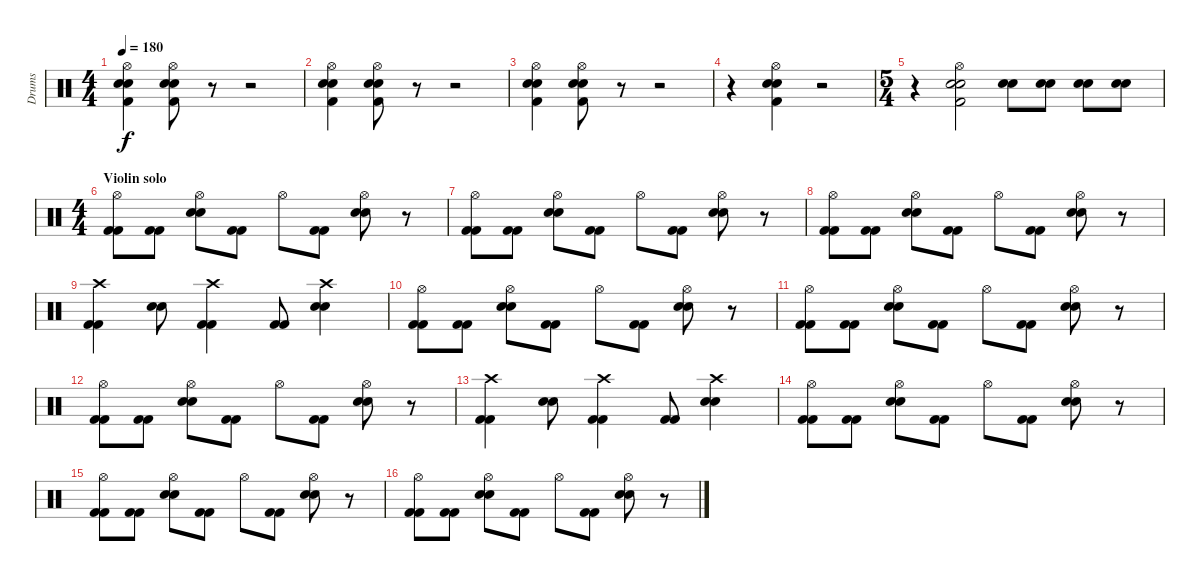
\track ("Drums" "Drums") {instrument percussion}
\staff {score}
\articulation defaults
\ts (4 4)
\tempo 180
\clef neutral
\ks c
("Hi-Hat (open)" "Snare (hit) 2" "Snare (hit) 2" "Kick (hit) 2").4{dy f} ("Hi-Hat (open)" "Snare (hit) 2" "Snare (hit) 2" "Kick (hit) 2").8 r.8 r.2 |
("Hi-Hat (open)" "Snare (hit) 2" "Snare (hit) 2" "Kick (hit) 2").4 ("Hi-Hat (open)" "Snare (hit) 2" "Snare (hit) 2" "Kick (hit) 2").8 r.8 r.2 |
("Hi-Hat (open)" "Snare (hit) 2" "Snare (hit) 2" "Kick (hit) 2").4 ("Hi-Hat (open)" "Snare (hit) 2" "Snare (hit) 2" "Kick (hit) 2").8 r.8 r.2 |
r.4 ("Hi-Hat (open)" "Snare (hit) 2" "Snare (hit) 2" "Kick (hit) 2").4 r.2 |
\ts (5 4)
r.4 ("Hi-Hat (open)" "Snare (hit) 2" "Snare (hit) 2" "Kick (hit) 2").2 ("Snare (hit) 2" "Snare (hit) 2").8 ("Snare (hit) 2" "Snare (hit) 2").8 ("Snare (hit) 2" "Snare (hit) 2").8 ("Snare (hit) 2" "Snare (hit) 2").8 |
\ts (4 4)
\section ("" "Violin solo")
("Hi-Hat (open)" "Kick (hit) 2" "Kick (hit) 2").8 ("Kick (hit) 2" "Kick (hit) 2").8 ("Hi-Hat (open)" "Snare (hit) 2" "Snare (hit) 2").8 ("Kick (hit) 2" "Kick (hit) 2").8 "Hi-Hat (open)".8 ("Kick (hit) 2" "Kick (hit) 2").8 ("Hi-Hat (open)" "Snare (hit) 2" "Snare (hit) 2").8 r.8 |
("Hi-Hat (open)" "Kick (hit) 2" "Kick (hit) 2").8 ("Kick (hit) 2" "Kick (hit) 2").8 ("Hi-Hat (open)" "Snare (hit) 2" "Snare (hit) 2").8 ("Kick (hit) 2" "Kick (hit) 2").8 "Hi-Hat (open)".8 ("Kick (hit) 2" "Kick (hit) 2").8 ("Hi-Hat (open)" "Snare (hit) 2" "Snare (hit) 2").8 r.8 |
("Hi-Hat (open)" "Kick (hit) 2" "Kick (hit) 2").8 ("Kick (hit) 2" "Kick (hit) 2").8 ("Hi-Hat (open)" "Snare (hit) 2" "Snare (hit) 2").8 ("Kick (hit) 2" "Kick (hit) 2").8 "Hi-Hat (open)".8 ("Kick (hit) 2" "Kick (hit) 2").8 ("Hi-Hat (open)" "Snare (hit) 2" "Snare (hit) 2").8 r.8 |
("Crash high (hit)" "Kick (hit) 2" "Kick (hit) 2").4 ("Snare (hit) 2" "Snare (hit) 2").8 ("Crash high (hit)" "Kick (hit) 2" "Kick (hit) 2").4 ("Kick (hit) 2" "Kick (hit) 2").8 ("Crash high (hit)" "Snare (hit) 2" "Snare (hit) 2").4 |
("Hi-Hat (open)" "Kick (hit) 2" "Kick (hit) 2").8 ("Kick (hit) 2" "Kick (hit) 2").8 ("Hi-Hat (open)" "Snare (hit) 2" "Snare (hit) 2").8 ("Kick (hit) 2" "Kick (hit) 2").8 "Hi-Hat (open)".8 ("Kick (hit) 2" "Kick (hit) 2").8 ("Hi-Hat (open)" "Snare (hit) 2" "Snare (hit) 2").8 r.8 |
("Hi-Hat (open)" "Kick (hit) 2" "Kick (hit) 2").8 ("Kick (hit) 2" "Kick (hit) 2").8 ("Hi-Hat (open)" "Snare (hit) 2" "Snare (hit) 2").8 ("Kick (hit) 2" "Kick (hit) 2").8 "Hi-Hat (open)".8 ("Kick (hit) 2" "Kick (hit) 2").8 ("Hi-Hat (open)" "Snare (hit) 2" "Snare (hit) 2").8 r.8 |
("Hi-Hat (open)" "Kick (hit) 2" "Kick (hit) 2").8 ("Kick (hit) 2" "Kick (hit) 2").8 ("Hi-Hat (open)" "Snare (hit) 2" "Snare (hit) 2").8 ("Kick (hit) 2" "Kick (hit) 2").8 "Hi-Hat (open)".8 ("Kick (hit) 2" "Kick (hit) 2").8 ("Hi-Hat (open)" "Snare (hit) 2" "Snare (hit) 2").8 r.8 |
("Crash high (hit)" "Kick (hit) 2" "Kick (hit) 2").4 ("Snare (hit) 2" "Snare (hit) 2").8 ("Crash high (hit)" "Kick (hit) 2" "Kick (hit) 2").4 ("Kick (hit) 2" "Kick (hit) 2").8 ("Crash high (hit)" "Snare (hit) 2" "Snare (hit) 2").4 |
("Hi-Hat (open)" "Kick (hit) 2" "Kick (hit) 2").8 ("Kick (hit) 2" "Kick (hit) 2").8 ("Hi-Hat (open)" "Snare (hit) 2" "Snare (hit) 2").8 ("Kick (hit) 2" "Kick (hit) 2").8 "Hi-Hat (open)".8 ("Kick (hit) 2" "Kick (hit) 2").8 ("Hi-Hat (open)" "Snare (hit) 2" "Snare (hit) 2").8 r.8 |
("Hi-Hat (open)" "Kick (hit) 2" "Kick (hit) 2").8 ("Kick (hit) 2" "Kick (hit) 2").8 ("Hi-Hat (open)" "Snare (hit) 2" "Snare (hit) 2").8 ("Kick (hit) 2" "Kick (hit) 2").8 "Hi-Hat (open)".8 ("Kick (hit) 2" "Kick (hit) 2").8 ("Hi-Hat (open)" "Snare (hit) 2" "Snare (hit) 2").8 r.8 |
("Hi-Hat (open)" "Kick (hit) 2" "Kick (hit) 2").8 ("Kick (hit) 2" "Kick (hit) 2").8 ("Hi-Hat (open)" "Snare (hit) 2" "Snare (hit) 2").8 ("Kick (hit) 2" "Kick (hit) 2").8 "Hi-Hat (open)".8 ("Kick (hit) 2" "Kick (hit) 2").8 ("Hi-Hat (open)" "Snare (hit) 2" "Snare (hit) 2").8 r.8
